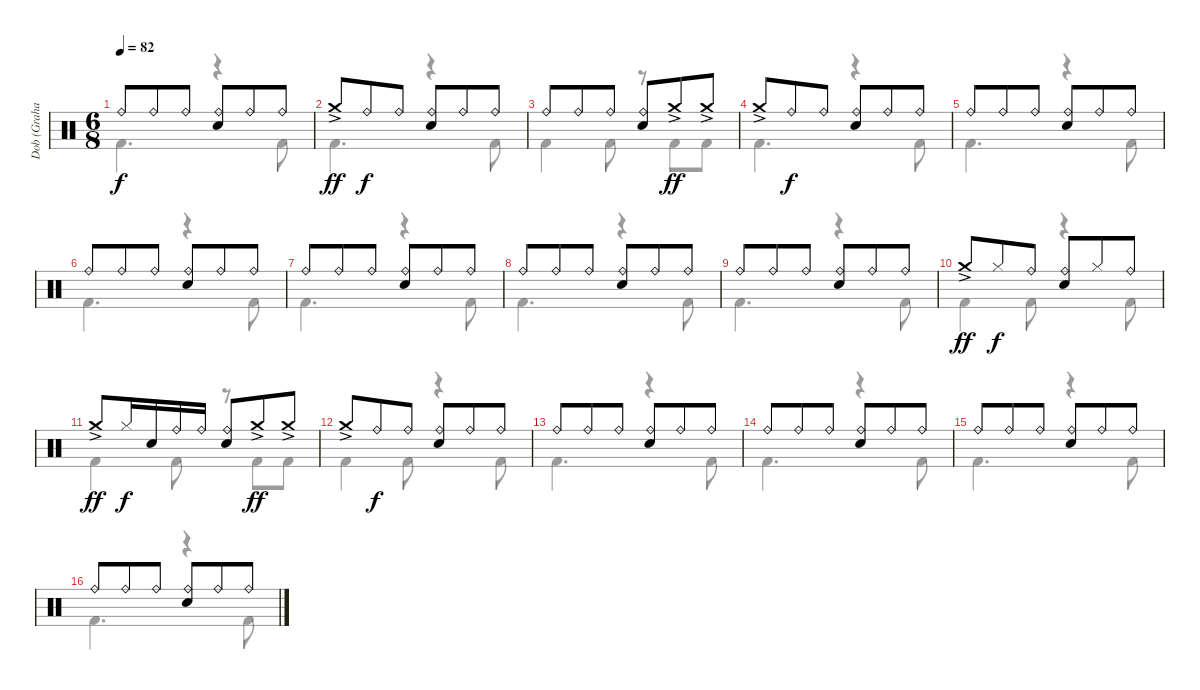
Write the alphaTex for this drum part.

\track ("Dob (Graham Walker)" "Dob (Graha") {instrument percussion}
\staff {score}
\articulation defaults
\voice
\ts (6 8)
\tempo 82
\clef neutral
\ks c "Ride (bell)".8{dy f} "Ride (bell)".8 "Ride (bell)".8
("Ride (bell)" "Electric Snare (hit)").8 "Ride (bell)".8 "Ride (bell)".8 |
"Crash medium (hit)"{ac}.8{dy ff} "Ride (bell)".8{dy f} "Ride (bell)".8 ("Ride (bell)" "Electric Snare (hit)").8 "Ride (bell)".8 "Ride (bell)".8 |
"Ride (bell)".8 "Ride (bell)".8 "Ride (bell)".8 ("Ride (bell)" "Electric Snare (hit)").8 "Crash medium (hit)"{ac}.8{dy ff} "Crash medium (hit)"{ac}.8 |
"Crash medium (hit)"{ac}.8 "Ride (bell)".8{dy f} "Ride (bell)".8 ("Ride (bell)" "Electric Snare (hit)").8 "Ride (bell)".8 "Ride (bell)".8 |
"Ride (bell)".8 "Ride (bell)".8 "Ride (bell)".8 ("Ride (bell)" "Electric Snare (hit)").8 "Ride (bell)".8 "Ride (bell)".8 |
"Ride (bell)".8 "Ride (bell)".8 "Ride (bell)".8 ("Ride (bell)" "Electric Snare (hit)").8 "Ride (bell)".8 "Ride (bell)".8 |
"Ride (bell)".8 "Ride (bell)".8 "Ride (bell)".8 ("Ride (bell)" "Electric Snare (hit)").8 "Ride (bell)".8 "Ride (bell)".8 |
"Ride (bell)".8 "Ride (bell)".8 "Ride (bell)".8 ("Ride (bell)" "Electric Snare (hit)").8 "Ride (bell)".8 "Ride (bell)".8 |
"Ride (bell)".8 "Ride (bell)".8 "Ride (bell)".8 ("Ride (bell)" "Electric Snare (hit)").8 "Ride (bell)".8 "Ride (bell)".8 |
"Crash medium (hit)"{ac}.8{dy ff} "Hi-Hat (closed)".8{dy f} "Ride (bell)".8 ("Ride (bell)" "Electric Snare (hit)").8 "Hi-Hat (closed)".8 "Ride (bell)".8 |
"Crash medium (hit)"{ac}.8{dy ff} "Hi-Hat (closed)".16{dy f} "Electric Snare (hit)".16 "Ride (bell)".16 "Ride (bell)".16 ("Ride (bell)" "Electric Snare (hit)").8 "Crash medium (hit)"{ac}.8{dy ff} "Crash medium (hit)"{ac}.8 |
"Crash medium (hit)"{ac}.8 "Ride (bell)".8{dy f} "Ride (bell)".8 ("Ride (bell)" "Electric Snare (hit)").8 "Ride (bell)".8 "Ride (bell)".8 |
"Ride (bell)".8 "Ride (bell)".8 "Ride (bell)".8 ("Ride (bell)" "Electric Snare (hit)").8 "Ride (bell)".8 "Ride (bell)".8 |
"Ride (bell)".8 "Ride (bell)".8 "Ride (bell)".8 ("Ride (bell)" "Electric Snare (hit)").8 "Ride (bell)".8 "Ride (bell)".8 |
"Ride (bell)".8 "Ride (bell)".8 "Ride (bell)".8 ("Ride (bell)" "Electric Snare (hit)").8 "Ride (bell)".8 "Ride (bell)".8 |
"Ride (bell)".8 "Ride (bell)".8 "Ride (bell)".8 ("Ride (bell)" "Electric Snare (hit)").8 "Ride (bell)".8 "Ride (bell)".8
\voice
\clef neutral
\ottava regular
\simile none
\ks c "Kick (hit) 2".4{d dy f}
r.4 "Kick (hit) 2".8 |
"Kick (hit) 2".4{d} r.4 "Kick (hit) 2".8 |
"Kick (hit) 2".4 "Kick (hit) 2".8 r.8 "Kick (hit) 2".8 "Kick (hit) 2".8 |
"Kick (hit) 2".4{d} r.4 "Kick (hit) 2".8 |
"Kick (hit) 2".4{d} r.4 "Kick (hit) 2".8 |
"Kick (hit) 2".4{d} r.4 "Kick (hit) 2".8 |
"Kick (hit) 2".4{d} r.4 "Kick (hit) 2".8 |
"Kick (hit) 2".4{d} r.4 "Kick (hit) 2".8 |
"Kick (hit) 2".4{d} r.4 "Kick (hit) 2".8 |
"Kick (hit) 2".4 "Kick (hit) 2".8 r.4 "Kick (hit) 2".8 |
"Kick (hit) 2".4 "Kick (hit) 2".8 r.8 "Kick (hit) 2".8 "Kick (hit) 2".8 |
"Kick (hit) 2".4 "Kick (hit) 2".8 r.4 "Kick (hit) 2".8 |
"Kick (hit) 2".4{d} r.4 "Kick (hit) 2".8 |
"Kick (hit) 2".4{d} r.4 "Kick (hit) 2".8 |
"Kick (hit) 2".4{d} r.4 "Kick (hit) 2".8 |
"Kick (hit) 2".4{d} r.4 "Kick (hit) 2".8
